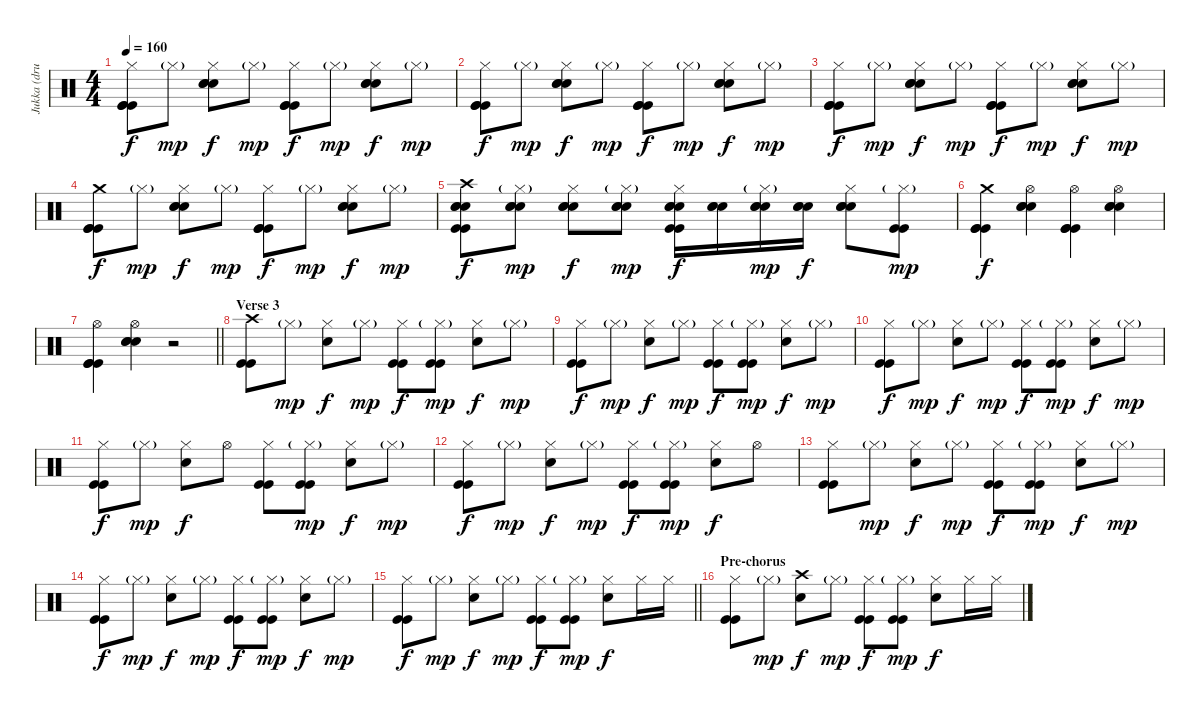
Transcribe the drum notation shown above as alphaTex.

\track ("Jukka (drums)" "Jukka (dru") {instrument percussion}
\staff {score}
\articulation defaults
\ts (4 4)
\tempo 160
\clef neutral
\ks c
("Hi-Hat (closed)" "Kick (hit)" "Kick (hit)" "Kick (hit)").8{dy f} "Hi-Hat (closed)"{g}.8{dy mp} ("Hi-Hat (closed)" "Electric Snare (hit)" "Electric Snare (hit)" "Electric Snare (hit)").8{dy f} "Hi-Hat (closed)"{g}.8{dy mp} ("Hi-Hat (closed)" "Kick (hit)" "Kick (hit)" "Kick (hit)").8{dy f} "Hi-Hat (closed)"{g}.8{dy mp} ("Hi-Hat (closed)" "Electric Snare (hit)" "Electric Snare (hit)" "Electric Snare (hit)").8{dy f} "Hi-Hat (closed)"{g}.8{dy mp} |
("Hi-Hat (closed)" "Kick (hit)" "Kick (hit)" "Kick (hit)").8{dy f} "Hi-Hat (closed)"{g}.8{dy mp} ("Hi-Hat (closed)" "Electric Snare (hit)" "Electric Snare (hit)" "Electric Snare (hit)").8{dy f} "Hi-Hat (closed)"{g}.8{dy mp} ("Hi-Hat (closed)" "Kick (hit)" "Kick (hit)" "Kick (hit)").8{dy f} "Hi-Hat (closed)"{g}.8{dy mp} ("Hi-Hat (closed)" "Electric Snare (hit)" "Electric Snare (hit)" "Electric Snare (hit)").8{dy f} "Hi-Hat (closed)"{g}.8{dy mp} |
("Hi-Hat (closed)" "Kick (hit)" "Kick (hit)" "Kick (hit)").8{dy f} "Hi-Hat (closed)"{g}.8{dy mp} ("Hi-Hat (closed)" "Electric Snare (hit)" "Electric Snare (hit)" "Electric Snare (hit)").8{dy f} "Hi-Hat (closed)"{g}.8{dy mp} ("Hi-Hat (closed)" "Kick (hit)" "Kick (hit)" "Kick (hit)").8{dy f} "Hi-Hat (closed)"{g}.8{dy mp} ("Hi-Hat (closed)" "Electric Snare (hit)" "Electric Snare (hit)" "Electric Snare (hit)").8{dy f} "Hi-Hat (closed)"{g}.8{dy mp} |
("Crash medium (hit)" "Kick (hit)" "Kick (hit)" "Kick (hit)").8{dy f} "Hi-Hat (closed)"{g}.8{dy mp} ("Hi-Hat (closed)" "Electric Snare (hit)" "Electric Snare (hit)" "Electric Snare (hit)").8{dy f} "Hi-Hat (closed)"{g}.8{dy mp} ("Hi-Hat (closed)" "Kick (hit)" "Kick (hit)" "Kick (hit)").8{dy f} "Hi-Hat (closed)"{g}.8{dy mp} ("Hi-Hat (closed)" "Electric Snare (hit)" "Electric Snare (hit)" "Electric Snare (hit)").8{dy f} "Hi-Hat (closed)"{g}.8{dy mp} |
("Crash high (hit)" "Electric Snare (hit)" "Electric Snare (hit)" "Electric Snare (hit)" "Kick (hit)" "Kick (hit)").8{dy f} ("Hi-Hat (closed)"{g} "Electric Snare (hit)" "Electric Snare (hit)" "Electric Snare (hit)").8{dy mp} ("Hi-Hat (closed)" "Electric Snare (hit)" "Electric Snare (hit)" "Electric Snare (hit)").8{dy f} ("Hi-Hat (closed)"{g} "Electric Snare (hit)" "Electric Snare (hit)" "Electric Snare (hit)").8{dy mp} ("Hi-Hat (closed)" "Electric Snare (hit)" "Electric Snare (hit)" "Electric Snare (hit)" "Kick (hit)" "Kick (hit)").16{dy f} ("Electric Snare (hit)" "Electric Snare (hit)" "Electric Snare (hit)").16 ("Hi-Hat (closed)"{g} "Electric Snare (hit)" "Electric Snare (hit)" "Electric Snare (hit)").16{dy mp} ("Electric Snare (hit)" "Electric Snare (hit)" "Electric Snare (hit)").16{dy f} ("Hi-Hat (closed)" "Electric Snare (hit)" "Electric Snare (hit)" "Electric Snare (hit)").8 ("Hi-Hat (closed)"{g} "Kick (hit)" "Kick (hit)").8{dy mp} |
("Crash medium (hit)" "Kick (hit)" "Kick (hit)" "Kick (hit)").4{dy f} ("Hi-Hat (open)" "Electric Snare (hit)" "Electric Snare (hit)" "Electric Snare (hit)").4 ("Hi-Hat (open)" "Kick (hit)" "Kick (hit)" "Kick (hit)").4 ("Hi-Hat (open)" "Electric Snare (hit)" "Electric Snare (hit)" "Electric Snare (hit)").4 |
\barLineRight lightlight
("Hi-Hat (open)" "Kick (hit)" "Kick (hit)" "Kick (hit)").4 ("Hi-Hat (open)" "Electric Snare (hit)" "Electric Snare (hit)" "Electric Snare (hit)").4 r.2 |
\section ("" "Verse 3")
("Crash high (hit)" "Kick (hit)" "Kick (hit)").8 "Hi-Hat (closed)"{g}.8{dy mp} ("Hi-Hat (closed)" "Electric Snare (hit)").8{dy f} "Hi-Hat (closed)"{g}.8{dy mp} ("Hi-Hat (closed)" "Kick (hit)" "Kick (hit)").8{dy f} ("Hi-Hat (closed)"{g} "Kick (hit)" "Kick (hit)").8{dy mp} ("Hi-Hat (closed)" "Electric Snare (hit)").8{dy f} "Hi-Hat (closed)"{g}.8{dy mp} |
("Hi-Hat (closed)" "Kick (hit)" "Kick (hit)").8{dy f} "Hi-Hat (closed)"{g}.8{dy mp} ("Hi-Hat (closed)" "Electric Snare (hit)").8{dy f} "Hi-Hat (closed)"{g}.8{dy mp} ("Hi-Hat (closed)" "Kick (hit)" "Kick (hit)").8{dy f} ("Hi-Hat (closed)"{g} "Kick (hit)" "Kick (hit)").8{dy mp} ("Hi-Hat (closed)" "Electric Snare (hit)").8{dy f} "Hi-Hat (closed)"{g}.8{dy mp} |
("Hi-Hat (closed)" "Kick (hit)" "Kick (hit)").8{dy f} "Hi-Hat (closed)"{g}.8{dy mp} ("Hi-Hat (closed)" "Electric Snare (hit)").8{dy f} "Hi-Hat (closed)"{g}.8{dy mp} ("Hi-Hat (closed)" "Kick (hit)" "Kick (hit)").8{dy f} ("Hi-Hat (closed)"{g} "Kick (hit)" "Kick (hit)").8{dy mp} ("Hi-Hat (closed)" "Electric Snare (hit)").8{dy f} "Hi-Hat (closed)"{g}.8{dy mp} |
("Hi-Hat (closed)" "Kick (hit)" "Kick (hit)").8{dy f} "Hi-Hat (closed)"{g}.8{dy mp} ("Hi-Hat (closed)" "Electric Snare (hit)").8{dy f} "Hi-Hat (open)".8 ("Hi-Hat (closed)" "Kick (hit)" "Kick (hit)").8 ("Hi-Hat (closed)"{g} "Kick (hit)" "Kick (hit)").8{dy mp} ("Hi-Hat (closed)" "Electric Snare (hit)").8{dy f} "Hi-Hat (closed)"{g}.8{dy mp} |
("Hi-Hat (closed)" "Kick (hit)" "Kick (hit)").8{dy f} "Hi-Hat (closed)"{g}.8{dy mp} ("Hi-Hat (closed)" "Electric Snare (hit)").8{dy f} "Hi-Hat (closed)"{g}.8{dy mp} ("Hi-Hat (closed)" "Kick (hit)" "Kick (hit)").8{dy f} ("Hi-Hat (closed)"{g} "Kick (hit)" "Kick (hit)").8{dy mp} ("Hi-Hat (closed)" "Electric Snare (hit)").8{dy f} "Hi-Hat (open)".8 |
("Hi-Hat (closed)" "Kick (hit)" "Kick (hit)").8 "Hi-Hat (closed)"{g}.8{dy mp} ("Hi-Hat (closed)" "Electric Snare (hit)").8{dy f} "Hi-Hat (closed)"{g}.8{dy mp} ("Hi-Hat (closed)" "Kick (hit)" "Kick (hit)").8{dy f} ("Hi-Hat (closed)"{g} "Kick (hit)" "Kick (hit)").8{dy mp} ("Hi-Hat (closed)" "Electric Snare (hit)").8{dy f} "Hi-Hat (closed)"{g}.8{dy mp} |
("Hi-Hat (closed)" "Kick (hit)" "Kick (hit)").8{dy f} "Hi-Hat (closed)"{g}.8{dy mp} ("Hi-Hat (closed)" "Electric Snare (hit)").8{dy f} "Hi-Hat (closed)"{g}.8{dy mp} ("Hi-Hat (closed)" "Kick (hit)" "Kick (hit)").8{dy f} ("Hi-Hat (closed)"{g} "Kick (hit)" "Kick (hit)").8{dy mp} ("Hi-Hat (closed)" "Electric Snare (hit)").8{dy f} "Hi-Hat (closed)"{g}.8{dy mp} |
\barLineRight lightlight
("Hi-Hat (closed)" "Kick (hit)" "Kick (hit)").8{dy f} "Hi-Hat (closed)"{g}.8{dy mp} ("Hi-Hat (closed)" "Electric Snare (hit)").8{dy f} "Hi-Hat (closed)"{g}.8{dy mp} ("Hi-Hat (closed)" "Kick (hit)" "Kick (hit)").8{dy f} ("Hi-Hat (closed)"{g} "Kick (hit)" "Kick (hit)").8{dy mp} ("Hi-Hat (closed)" "Electric Snare (hit)").8{dy f} "Hi-Hat (closed)".16 "Hi-Hat (closed)".16 |
\section ("" "Pre-chorus")
("Hi-Hat (closed)" "Kick (hit)" "Kick (hit)").8 "Hi-Hat (closed)"{g}.8{dy mp} ("Crash high (hit)" "Electric Snare (hit)").8{dy f} "Hi-Hat (closed)"{g}.8{dy mp} ("Hi-Hat (closed)" "Kick (hit)" "Kick (hit)").8{dy f} ("Hi-Hat (closed)"{g} "Kick (hit)" "Kick (hit)").8{dy mp} ("Hi-Hat (closed)" "Electric Snare (hit)").8{dy f} "Hi-Hat (closed)".16 "Hi-Hat (closed)".16
